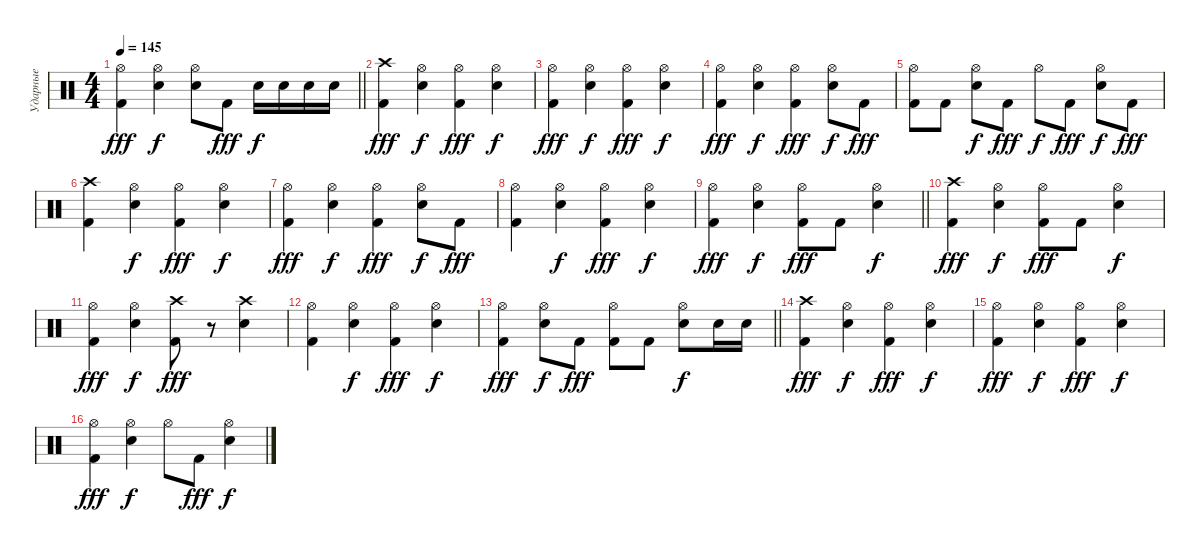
\track ("Ударные" "Ударные") {instrument percussion}
\staff {score}
\articulation defaults
\ts (4 4)
\tempo 145
\clef neutral
\barLineRight lightlight
\ks c
("Kick (hit) 2" "Hi-Hat (open)").4{dy fff} ("Snare (hit) 2" "Hi-Hat (open)").4{dy f} ("Snare (hit) 2" "Hi-Hat (open)").8 "Kick (hit) 2".8{dy fff} "Snare (hit) 2".16{dy f} "Snare (hit) 2".16 "Snare (hit) 2".16 "Snare (hit) 2".16 |
("Kick (hit) 2" "Crash high (hit)").4{dy fff} ("Snare (hit) 2" "Hi-Hat (open)").4{dy f} ("Kick (hit) 2" "Hi-Hat (open)").4{dy fff} ("Snare (hit) 2" "Hi-Hat (open)").4{dy f} |
("Kick (hit) 2" "Hi-Hat (open)").4{dy fff} ("Snare (hit) 2" "Hi-Hat (open)").4{dy f} ("Kick (hit) 2" "Hi-Hat (open)").4{dy fff} ("Snare (hit) 2" "Hi-Hat (open)").4{dy f} |
("Kick (hit) 2" "Hi-Hat (open)").4{dy fff} ("Snare (hit) 2" "Hi-Hat (open)").4{dy f} ("Kick (hit) 2" "Hi-Hat (open)").4{dy fff} ("Snare (hit) 2" "Hi-Hat (open)").8{dy f} "Kick (hit) 2".8{dy fff} |
("Kick (hit) 2" "Hi-Hat (open)").8 "Kick (hit) 2".8 ("Snare (hit) 2" "Hi-Hat (open)").8{dy f} "Kick (hit) 2".8{dy fff} "Hi-Hat (open)".8{dy f} "Kick (hit) 2".8{dy fff} ("Snare (hit) 2" "Hi-Hat (open)").8{dy f} "Kick (hit) 2".8{dy fff} |
("Kick (hit) 2" "Crash high (hit)").4 ("Snare (hit) 2" "Hi-Hat (open)").4{dy f} ("Kick (hit) 2" "Hi-Hat (open)").4{dy fff} ("Snare (hit) 2" "Hi-Hat (open)").4{dy f} |
("Kick (hit) 2" "Hi-Hat (open)").4{dy fff} ("Snare (hit) 2" "Hi-Hat (open)").4{dy f} ("Kick (hit) 2" "Hi-Hat (open)").4{dy fff} ("Snare (hit) 2" "Hi-Hat (open)").8{dy f} "Kick (hit) 2".8{dy fff} |
("Kick (hit) 2" "Hi-Hat (open)").4 ("Snare (hit) 2" "Hi-Hat (open)").4{dy f} ("Kick (hit) 2" "Hi-Hat (open)").4{dy fff} ("Snare (hit) 2" "Hi-Hat (open)").4{dy f} |
\barLineRight lightlight
("Kick (hit) 2" "Hi-Hat (open)").4{dy fff} ("Snare (hit) 2" "Hi-Hat (open)").4{dy f} ("Kick (hit) 2" "Hi-Hat (open)").8{dy fff} "Kick (hit) 2".8 ("Snare (hit) 2" "Hi-Hat (open)").4{dy f} |
("Kick (hit) 2" "Crash high (hit)").4{dy fff} ("Snare (hit) 2" "Hi-Hat (open)").4{dy f} ("Kick (hit) 2" "Hi-Hat (open)").8{dy fff} "Kick (hit) 2".8 ("Snare (hit) 2" "Hi-Hat (open)").4{dy f} |
("Kick (hit) 2" "Hi-Hat (open)").4{dy fff} ("Snare (hit) 2" "Hi-Hat (open)").4{dy f} ("Kick (hit) 2" "Crash high (hit)").8{dy fff} r.8 ("Snare (hit) 2" "Crash high (hit)").4 |
("Kick (hit) 2" "Hi-Hat (open)").4 ("Snare (hit) 2" "Hi-Hat (open)").4{dy f} ("Kick (hit) 2" "Hi-Hat (open)").4{dy fff} ("Snare (hit) 2" "Hi-Hat (open)").4{dy f} |
\barLineRight lightlight
("Kick (hit) 2" "Hi-Hat (open)").4{dy fff} ("Snare (hit) 2" "Hi-Hat (open)").8{dy f} "Kick (hit) 2".8{dy fff} ("Kick (hit) 2" "Hi-Hat (open)").8 "Kick (hit) 2".8 ("Snare (hit) 2" "Hi-Hat (open)").8{dy f} "Snare (hit) 2".16 "Snare (hit) 2".16 |
("Kick (hit) 2" "Crash high (hit)").4{dy fff} ("Snare (hit) 2" "Hi-Hat (open)").4{dy f} ("Kick (hit) 2" "Hi-Hat (open)").4{dy fff} ("Snare (hit) 2" "Hi-Hat (open)").4{dy f} |
("Kick (hit) 2" "Hi-Hat (open)").4{dy fff} ("Snare (hit) 2" "Hi-Hat (open)").4{dy f} ("Kick (hit) 2" "Hi-Hat (open)").4{dy fff} ("Snare (hit) 2" "Hi-Hat (open)").4{dy f} |
("Kick (hit) 2" "Hi-Hat (open)").4{dy fff} ("Snare (hit) 2" "Hi-Hat (open)").4{dy f} "Hi-Hat (open)".8 "Kick (hit) 2".8{dy fff} ("Snare (hit) 2" "Hi-Hat (open)").4{dy f}
